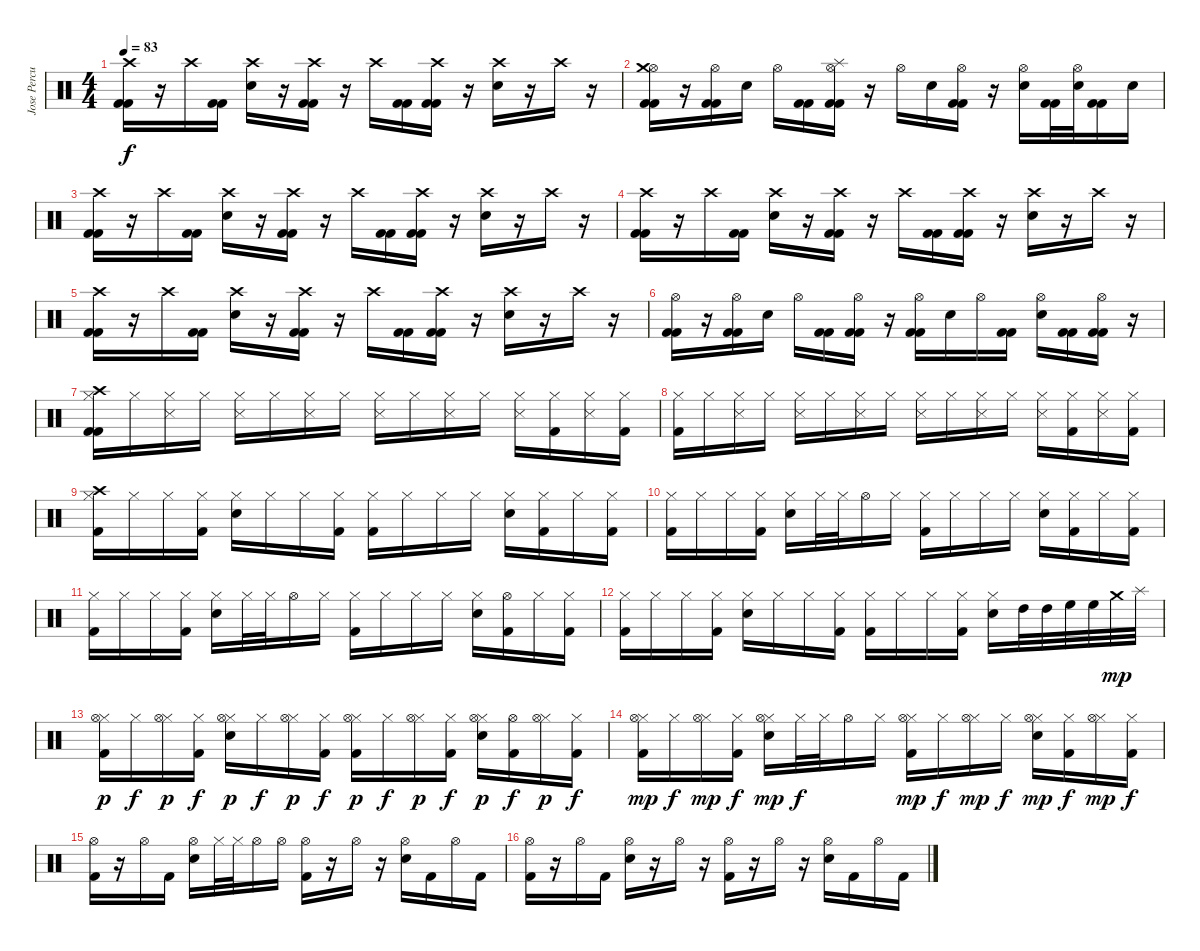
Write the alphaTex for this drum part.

\track ("Jose Percusilas" "Jose Percu") {instrument percussion}
\staff {score}
\articulation defaults
\ts (4 4)
\tempo 83
\clef neutral
\ks c
("Crash high (hit)" "Kick (hit) 2" "Kick (hit) 2").16{dy f} r.16 "Crash high (hit)".16 ("Kick (hit) 2" "Kick (hit) 2").16 ("Crash high (hit)" "Electric Snare (hit)").16 r.16 ("Crash high (hit)" "Kick (hit) 2" "Kick (hit) 2").16 r.16 "Crash high (hit)".16 ("Kick (hit) 2" "Kick (hit) 2").16 ("Crash high (hit)" "Kick (hit) 2" "Kick (hit) 2").16 r.16 ("Crash high (hit)" "Electric Snare (hit)").16 r.16 "Crash high (hit)".16 r.16 |
("Hi-Hat (open)" "Crash medium (hit)" "Kick (hit) 2" "Kick (hit) 2").16 r.16 ("Hi-Hat (open)" "Kick (hit) 2" "Kick (hit) 2").16 "Electric Snare (hit)".16 "Hi-Hat (open)".16 ("Kick (hit) 2" "Kick (hit) 2").16 ("Hi-Hat (open)" "Splash (hit)" "Kick (hit) 2" "Kick (hit) 2").16 r.16 "Hi-Hat (open)".16 "Electric Snare (hit)".16 ("Hi-Hat (open)" "Kick (hit) 2" "Kick (hit) 2").16 r.16 ("Hi-Hat (open)" "Electric Snare (hit)").16 ("Kick (hit) 2" "Kick (hit) 2").32 ("Hi-Hat (open)" "Electric Snare (hit)").32 ("Kick (hit) 2" "Kick (hit) 2").16 "Electric Snare (hit)".16 |
("Crash high (hit)" "Kick (hit) 2" "Kick (hit) 2").16 r.16 "Crash high (hit)".16 ("Kick (hit) 2" "Kick (hit) 2").16 ("Crash high (hit)" "Electric Snare (hit)").16 r.16 ("Crash high (hit)" "Kick (hit) 2" "Kick (hit) 2").16 r.16 "Crash high (hit)".16 ("Kick (hit) 2" "Kick (hit) 2").16 ("Crash high (hit)" "Kick (hit) 2" "Kick (hit) 2").16 r.16 ("Crash high (hit)" "Electric Snare (hit)").16 r.16 "Crash high (hit)".16 r.16 |
("Crash high (hit)" "Kick (hit) 2" "Kick (hit) 2").16 r.16 "Crash high (hit)".16 ("Kick (hit) 2" "Kick (hit) 2").16 ("Crash high (hit)" "Electric Snare (hit)").16 r.16 ("Crash high (hit)" "Kick (hit) 2" "Kick (hit) 2").16 r.16 "Crash high (hit)".16 ("Kick (hit) 2" "Kick (hit) 2").16 ("Crash high (hit)" "Kick (hit) 2" "Kick (hit) 2").16 r.16 ("Crash high (hit)" "Electric Snare (hit)").16 r.16 "Crash high (hit)".16 r.16 |
("Crash high (hit)" "Kick (hit) 2" "Kick (hit) 2").16 r.16 "Crash high (hit)".16 ("Kick (hit) 2" "Kick (hit) 2").16 ("Crash high (hit)" "Electric Snare (hit)").16 r.16 ("Crash high (hit)" "Kick (hit) 2" "Kick (hit) 2").16 r.16 "Crash high (hit)".16 ("Kick (hit) 2" "Kick (hit) 2").16 ("Crash high (hit)" "Kick (hit) 2" "Kick (hit) 2").16 r.16 ("Crash high (hit)" "Electric Snare (hit)").16 r.16 "Crash high (hit)".16 r.16 |
("Hi-Hat (open)" "Kick (hit) 2" "Kick (hit) 2").16 r.16 ("Hi-Hat (open)" "Kick (hit) 2" "Kick (hit) 2").16 "Electric Snare (hit)".16 "Hi-Hat (open)".16 ("Kick (hit) 2" "Kick (hit) 2").16 ("Hi-Hat (open)" "Kick (hit) 2" "Kick (hit) 2").16 r.16 ("Hi-Hat (open)" "Kick (hit) 2" "Kick (hit) 2").16 "Electric Snare (hit)".16 "Hi-Hat (open)".16 ("Kick (hit) 2" "Kick (hit) 2").16 ("Hi-Hat (open)" "Electric Snare (hit)").16 ("Kick (hit) 2" "Kick (hit) 2").16 ("Hi-Hat (open)" "Kick (hit) 2" "Kick (hit) 2").16 r.16 |
("Hi-Hat (closed)" "Crash high (hit)" "Kick (hit) 2" "Kick (hit) 2").16 "Hi-Hat (closed)".16 ("Hi-Hat (closed)" "Snare (side stick) 3").16 "Hi-Hat (closed)".16 ("Hi-Hat (closed)" "Snare (side stick) 3").16 "Hi-Hat (closed)".16 ("Hi-Hat (closed)" "Snare (side stick) 3").16 "Hi-Hat (closed)".16 ("Hi-Hat (closed)" "Snare (side stick) 3").16 "Hi-Hat (closed)".16 ("Hi-Hat (closed)" "Snare (side stick) 3").16 "Hi-Hat (closed)".16 ("Hi-Hat (closed)" "Snare (side stick) 3").16 ("Hi-Hat (closed)" "Kick (hit) 2").16 ("Hi-Hat (closed)" "Snare (side stick) 3").16 ("Hi-Hat (closed)" "Kick (hit) 2").16 |
("Hi-Hat (closed)" "Kick (hit) 2").16 "Hi-Hat (closed)".16 ("Hi-Hat (closed)" "Snare (side stick) 3").16 "Hi-Hat (closed)".16 ("Hi-Hat (closed)" "Snare (side stick) 3").16 "Hi-Hat (closed)".16 ("Hi-Hat (closed)" "Snare (side stick) 3").16 "Hi-Hat (closed)".16 ("Hi-Hat (closed)" "Snare (side stick) 3").16 "Hi-Hat (closed)".16 ("Hi-Hat (closed)" "Snare (side stick) 3").16 "Hi-Hat (closed)".16 ("Hi-Hat (closed)" "Snare (side stick) 3").16 ("Hi-Hat (closed)" "Kick (hit) 2").16 ("Hi-Hat (closed)" "Snare (side stick) 3").16 ("Hi-Hat (closed)" "Kick (hit) 2").16 |
("Hi-Hat (closed)" "Crash high (hit)" "Kick (hit) 2").16 "Hi-Hat (closed)".16 "Hi-Hat (closed)".16 ("Hi-Hat (closed)" "Kick (hit) 2").16 ("Hi-Hat (closed)" "Electric Snare (hit)").16 "Hi-Hat (closed)".16 "Hi-Hat (closed)".16 ("Hi-Hat (closed)" "Kick (hit) 2").16 ("Hi-Hat (closed)" "Kick (hit) 2").16 "Hi-Hat (closed)".16 "Hi-Hat (closed)".16 "Hi-Hat (closed)".16 ("Hi-Hat (closed)" "Electric Snare (hit)").16 ("Hi-Hat (closed)" "Kick (hit) 2").16 "Hi-Hat (closed)".16 ("Hi-Hat (closed)" "Kick (hit) 2").16 |
("Hi-Hat (closed)" "Kick (hit) 2").16 "Hi-Hat (closed)".16 "Hi-Hat (closed)".16 ("Hi-Hat (closed)" "Kick (hit) 2").16 ("Hi-Hat (closed)" "Electric Snare (hit)").16 "Hi-Hat (closed)".32 "Hi-Hat (closed)".32 "Hi-Hat (open)".16 "Hi-Hat (closed)".16 ("Hi-Hat (closed)" "Kick (hit) 2").16 "Hi-Hat (closed)".16 "Hi-Hat (closed)".16 "Hi-Hat (closed)".16 ("Hi-Hat (closed)" "Electric Snare (hit)").16 ("Hi-Hat (closed)" "Kick (hit) 2").16 "Hi-Hat (closed)".16 ("Hi-Hat (closed)" "Kick (hit) 2").16 |
("Hi-Hat (closed)" "Kick (hit) 2").16 "Hi-Hat (closed)".16 "Hi-Hat (closed)".16 ("Hi-Hat (closed)" "Kick (hit) 2").16 ("Hi-Hat (closed)" "Electric Snare (hit)").16 "Hi-Hat (closed)".32 "Hi-Hat (closed)".32 "Hi-Hat (open)".16 "Hi-Hat (closed)".16 ("Hi-Hat (closed)" "Kick (hit) 2").16 "Hi-Hat (closed)".16 "Hi-Hat (closed)".16 "Hi-Hat (closed)".16 ("Hi-Hat (closed)" "Electric Snare (hit)").16 ("Hi-Hat (open)" "Kick (hit) 2").16 "Hi-Hat (closed)".16 ("Hi-Hat (closed)" "Kick (hit) 2").16 |
("Hi-Hat (closed)" "Kick (hit) 2").16 "Hi-Hat (closed)".16 "Hi-Hat (closed)".16 ("Hi-Hat (closed)" "Kick (hit) 2").16 ("Hi-Hat (closed)" "Electric Snare (hit)").16 "Hi-Hat (closed)".16 "Hi-Hat (closed)".16 ("Hi-Hat (closed)" "Kick (hit) 2").16 ("Hi-Hat (closed)" "Kick (hit) 2").16 "Hi-Hat (closed)".16 "Hi-Hat (closed)".16 ("Hi-Hat (closed)" "Kick (hit) 2").16 ("Hi-Hat (closed)" "Electric Snare (hit)").16 "High Tom (hit)".32 "High Tom (hit)".32 "High Floor Tom (hit)".32 "High Floor Tom (hit)".32 "Crash medium (hit)".32{dy mp} "Splash (hit)".32 |
("Hi-Hat (closed)" "Hi-Hat (open)" "Kick (hit) 2").16{dy p} "Hi-Hat (closed)".16{dy f} ("Hi-Hat (closed)" "Hi-Hat (open)").16{dy p} ("Hi-Hat (closed)" "Kick (hit) 2").16{dy f} ("Hi-Hat (closed)" "Hi-Hat (open)" "Electric Snare (hit)").16{dy p} "Hi-Hat (closed)".16{dy f} ("Hi-Hat (closed)" "Hi-Hat (open)").16{dy p} ("Hi-Hat (closed)" "Kick (hit) 2").16{dy f} ("Hi-Hat (closed)" "Hi-Hat (open)" "Kick (hit) 2").16{dy p} "Hi-Hat (closed)".16{dy f} ("Hi-Hat (closed)" "Hi-Hat (open)").16{dy p} ("Hi-Hat (closed)" "Kick (hit) 2").16{dy f} ("Hi-Hat (closed)" "Hi-Hat (open)" "Electric Snare (hit)").16{dy p} ("Hi-Hat (open)" "Kick (hit) 2").16{dy f} ("Hi-Hat (closed)" "Hi-Hat (open)").16{dy p} ("Hi-Hat (closed)" "Kick (hit) 2").16{dy f} |
("Hi-Hat (closed)" "Hi-Hat (open)" "Kick (hit) 2").16{dy mp} "Hi-Hat (closed)".16{dy f} ("Hi-Hat (closed)" "Hi-Hat (open)").16{dy mp} ("Hi-Hat (closed)" "Kick (hit) 2").16{dy f} ("Hi-Hat (closed)" "Hi-Hat (open)" "Electric Snare (hit)").16{dy mp} "Hi-Hat (closed)".32{dy f} "Hi-Hat (closed)".32 "Hi-Hat (open)".16 "Hi-Hat (closed)".16 ("Hi-Hat (closed)" "Hi-Hat (open)" "Kick (hit) 2").16{dy mp} "Hi-Hat (closed)".16{dy f} ("Hi-Hat (closed)" "Hi-Hat (open)").16{dy mp} "Hi-Hat (closed)".16{dy f} ("Hi-Hat (closed)" "Hi-Hat (open)" "Electric Snare (hit)").16{dy mp} ("Hi-Hat (closed)" "Kick (hit) 2").16{dy f} ("Hi-Hat (closed)" "Hi-Hat (open)").16{dy mp} ("Hi-Hat (closed)" "Kick (hit) 2").16{dy f} |
("Hi-Hat (open)" "Kick (hit) 2").16 r.16 "Hi-Hat (open)".16 "Kick (hit) 2".16 ("Hi-Hat (open)" "Electric Snare (hit)").16 "Hi-Hat (closed)".32 "Hi-Hat (closed)".32 "Hi-Hat (open)".16 "Hi-Hat (open)".16 ("Hi-Hat (open)" "Kick (hit) 2").16 r.16 "Hi-Hat (open)".16 r.16 ("Hi-Hat (open)" "Electric Snare (hit)").16 "Kick (hit) 2".16 "Hi-Hat (open)".16 "Kick (hit) 2".16 |
("Hi-Hat (open)" "Kick (hit) 2").16 r.16 "Hi-Hat (open)".16 "Kick (hit) 2".16 ("Hi-Hat (open)" "Electric Snare (hit)").16 r.16 "Hi-Hat (open)".16 r.16 ("Hi-Hat (open)" "Kick (hit) 2").16 r.16 "Hi-Hat (open)".16 r.16 ("Hi-Hat (open)" "Electric Snare (hit)").16 "Kick (hit) 2".16 "Hi-Hat (open)".16 "Kick (hit) 2".16
